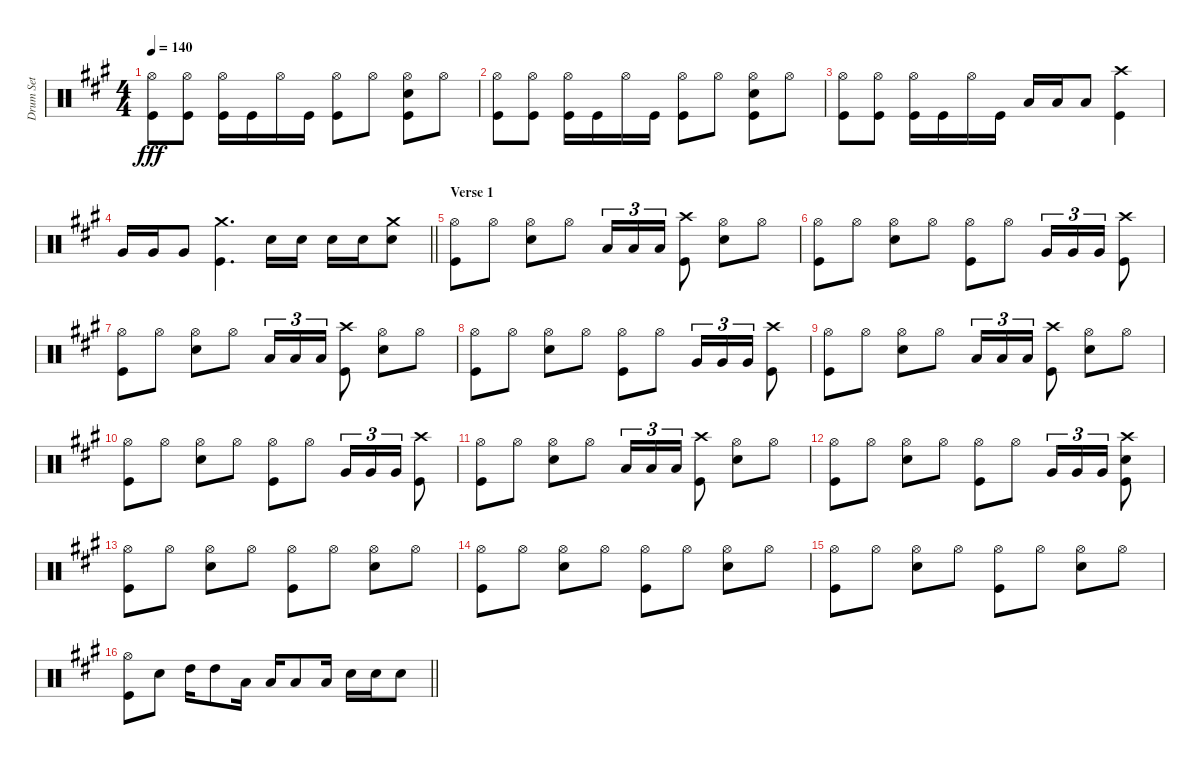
\track ("Drum Set" "Drum Set") {instrument percussion}
\staff {score}
\articulation defaults
\ts (4 4)
\tempo 140
\clef neutral
\ks a
("Hi-Hat (open)" "Kick (hit)").8{dy fff} ("Hi-Hat (open)" "Kick (hit)").8 ("Hi-Hat (open)" "Kick (hit)").16 "Kick (hit)".16 "Hi-Hat (open)".16 "Kick (hit)".16 ("Hi-Hat (open)" "Kick (hit)").8 "Hi-Hat (open)".8 ("Hi-Hat (open)" "Electric Snare (hit)" "Kick (hit)").8 "Hi-Hat (open)".8 |
("Hi-Hat (open)" "Kick (hit)").8 ("Hi-Hat (open)" "Kick (hit)").8 ("Hi-Hat (open)" "Kick (hit)").16 "Kick (hit)".16 "Hi-Hat (open)".16 "Kick (hit)".16 ("Hi-Hat (open)" "Kick (hit)").8 "Hi-Hat (open)".8 ("Hi-Hat (open)" "Electric Snare (hit)" "Kick (hit)").8 "Hi-Hat (open)".8 |
("Hi-Hat (open)" "Kick (hit)").8 ("Hi-Hat (open)" "Kick (hit)").8 ("Hi-Hat (open)" "Kick (hit)").16 "Kick (hit)".16 "Hi-Hat (open)".16 "Kick (hit)".16 "Low Tom (hit)".16 "Low Tom (hit)".16 "Low Tom (hit)".8 ("Crash high (hit)" "Kick (hit)").4 |
\barLineRight lightlight "Very Low Tom (hit)".16 "Very Low Tom (hit)".16 "Very Low Tom (hit)".8
("Crash medium (hit)" "Kick (hit)").4{d} "Electric Snare (hit)".16 "Electric Snare (hit)".16 "Electric Snare (hit)".16 "Electric Snare (hit)".16 ("Crash medium (hit)" "Electric Snare (hit)").8 |
\section ("" "Verse 1")
("Hi-Hat (open)" "Kick (hit)").8 "Hi-Hat (open)".8 ("Hi-Hat (open)" "Electric Snare (hit)").8 "Hi-Hat (open)".8 "Low Floor Tom (hit)".16{tu (3 2)} "Low Floor Tom (hit)".16{tu (3 2)} "Low Floor Tom (hit)".16{tu (3 2)} ("Crash high (hit)" "Kick (hit)").8 ("Hi-Hat (open)" "Electric Snare (hit)").8 "Hi-Hat (open)".8 |
("Hi-Hat (open)" "Kick (hit)").8 "Hi-Hat (open)".8 ("Hi-Hat (open)" "Electric Snare (hit)").8 "Hi-Hat (open)".8 ("Hi-Hat (open)" "Kick (hit)").8 "Hi-Hat (open)".8 "Very Low Tom (hit)".16{tu (3 2)} "Very Low Tom (hit)".16{tu (3 2)} "Very Low Tom (hit)".16{tu (3 2)} ("Crash high (hit)" "Kick (hit)").8 |
("Hi-Hat (open)" "Kick (hit)").8 "Hi-Hat (open)".8 ("Hi-Hat (open)" "Electric Snare (hit)").8 "Hi-Hat (open)".8 "Low Floor Tom (hit)".16{tu (3 2)} "Low Floor Tom (hit)".16{tu (3 2)} "Low Floor Tom (hit)".16{tu (3 2)} ("Crash high (hit)" "Kick (hit)").8 ("Hi-Hat (open)" "Electric Snare (hit)").8 "Hi-Hat (open)".8 |
("Hi-Hat (open)" "Kick (hit)").8 "Hi-Hat (open)".8 ("Hi-Hat (open)" "Electric Snare (hit)").8 "Hi-Hat (open)".8 ("Hi-Hat (open)" "Kick (hit)").8 "Hi-Hat (open)".8 "Very Low Tom (hit)".16{tu (3 2)} "Very Low Tom (hit)".16{tu (3 2)} "Very Low Tom (hit)".16{tu (3 2)} ("Crash high (hit)" "Kick (hit)").8 |
("Hi-Hat (open)" "Kick (hit)").8 "Hi-Hat (open)".8 ("Hi-Hat (open)" "Electric Snare (hit)").8 "Hi-Hat (open)".8 "Low Floor Tom (hit)".16{tu (3 2)} "Low Floor Tom (hit)".16{tu (3 2)} "Low Floor Tom (hit)".16{tu (3 2)} ("Crash high (hit)" "Kick (hit)").8 ("Hi-Hat (open)" "Electric Snare (hit)").8 "Hi-Hat (open)".8 |
("Hi-Hat (open)" "Kick (hit)").8 "Hi-Hat (open)".8 ("Hi-Hat (open)" "Electric Snare (hit)").8 "Hi-Hat (open)".8 ("Hi-Hat (open)" "Kick (hit)").8 "Hi-Hat (open)".8 "Very Low Tom (hit)".16{tu (3 2)} "Very Low Tom (hit)".16{tu (3 2)} "Very Low Tom (hit)".16{tu (3 2)} ("Crash high (hit)" "Kick (hit)").8 |
("Hi-Hat (open)" "Kick (hit)").8 "Hi-Hat (open)".8 ("Hi-Hat (open)" "Electric Snare (hit)").8 "Hi-Hat (open)".8 "Low Floor Tom (hit)".16{tu (3 2)} "Low Floor Tom (hit)".16{tu (3 2)} "Low Floor Tom (hit)".16{tu (3 2)} ("Crash high (hit)" "Kick (hit)").8 ("Hi-Hat (open)" "Electric Snare (hit)").8 "Hi-Hat (open)".8 |
("Hi-Hat (open)" "Kick (hit)").8 "Hi-Hat (open)".8 ("Hi-Hat (open)" "Electric Snare (hit)").8 "Hi-Hat (open)".8 ("Hi-Hat (open)" "Kick (hit)").8 "Hi-Hat (open)".8 "Very Low Tom (hit)".16{tu (3 2)} "Very Low Tom (hit)".16{tu (3 2)} "Very Low Tom (hit)".16{tu (3 2)} ("Crash high (hit)" "Kick (hit)" "Electric Snare (hit)").8 |
("Hi-Hat (open)" "Kick (hit)").8 "Hi-Hat (open)".8 ("Hi-Hat (open)" "Electric Snare (hit)").8 "Hi-Hat (open)".8 ("Hi-Hat (open)" "Kick (hit)").8 "Hi-Hat (open)".8 ("Hi-Hat (open)" "Electric Snare (hit)").8 "Hi-Hat (open)".8 |
("Hi-Hat (open)" "Kick (hit)").8 "Hi-Hat (open)".8 ("Hi-Hat (open)" "Electric Snare (hit)").8 "Hi-Hat (open)".8 ("Hi-Hat (open)" "Kick (hit)").8 "Hi-Hat (open)".8 ("Hi-Hat (open)" "Electric Snare (hit)").8 "Hi-Hat (open)".8 |
("Hi-Hat (open)" "Kick (hit)").8 "Hi-Hat (open)".8 ("Hi-Hat (open)" "Electric Snare (hit)").8 "Hi-Hat (open)".8 ("Hi-Hat (open)" "Kick (hit)").8 "Hi-Hat (open)".8 ("Hi-Hat (open)" "Electric Snare (hit)").8 "Hi-Hat (open)".8 |
\barLineRight lightlight
("Hi-Hat (open)" "Kick (hit)").8 "Electric Snare (hit)".8 "High Tom (hit)".16 "High Tom (hit)".8 "Low Tom (hit)".16 "Low Tom (hit)".16 "Low Tom (hit)".8 "Low Floor Tom (hit)".16 "Electric Snare (hit)".16 "Electric Snare (hit)".16 "Electric Snare (hit)".8
